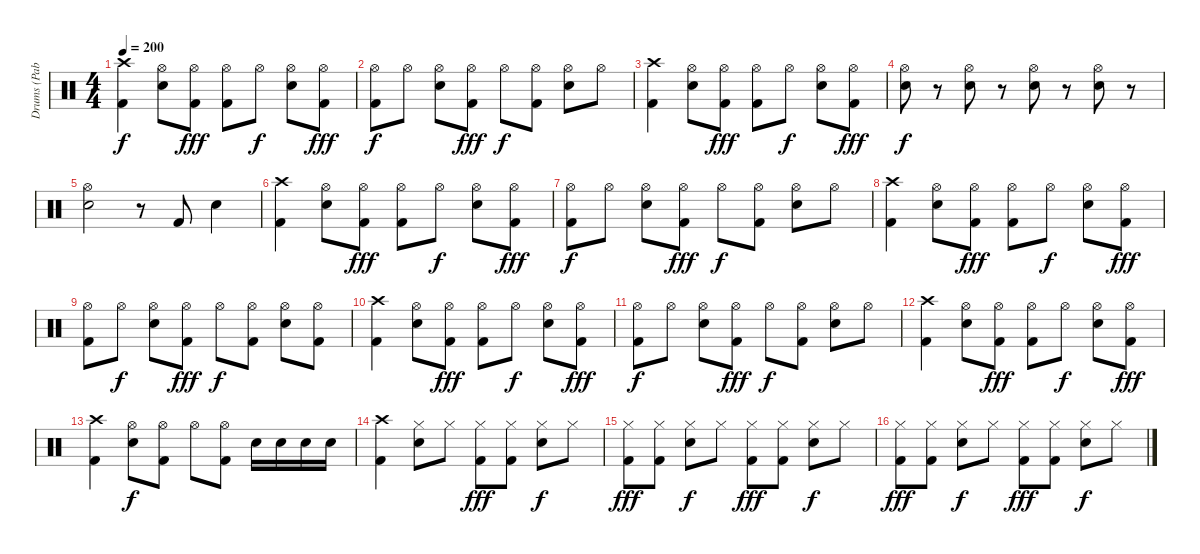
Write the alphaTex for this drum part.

\track ("Drums (Pablo)" "Drums (Pab") {instrument percussion}
\staff {score}
\articulation defaults
\ts (4 4)
\tempo 200
\clef neutral
\ks c
("Crash high (hit)" "Kick (hit) 2").4{dy f} ("Hi-Hat (open)" "Electric Snare (hit)").8 ("Hi-Hat (open)" "Kick (hit) 2").8{dy fff} ("Hi-Hat (open)" "Kick (hit) 2").8 "Hi-Hat (open)".8{dy f} ("Hi-Hat (open)" "Electric Snare (hit)").8 ("Hi-Hat (open)" "Kick (hit) 2").8{dy fff} |
("Hi-Hat (open)" "Kick (hit) 2").8{dy f} "Hi-Hat (open)".8 ("Hi-Hat (open)" "Electric Snare (hit)").8 ("Hi-Hat (open)" "Kick (hit) 2").8{dy fff} "Hi-Hat (open)".8{dy f} ("Hi-Hat (open)" "Kick (hit) 2").8 ("Hi-Hat (open)" "Electric Snare (hit)").8 "Hi-Hat (open)".8 |
("Crash high (hit)" "Kick (hit) 2").4 ("Hi-Hat (open)" "Electric Snare (hit)").8 ("Hi-Hat (open)" "Kick (hit) 2").8{dy fff} ("Hi-Hat (open)" "Kick (hit) 2").8 "Hi-Hat (open)".8{dy f} ("Hi-Hat (open)" "Electric Snare (hit)").8 ("Hi-Hat (open)" "Kick (hit) 2").8{dy fff} |
("Hi-Hat (open)" "Electric Snare (hit)").8{dy f} r.8 ("Hi-Hat (open)" "Electric Snare (hit)").8 r.8 ("Hi-Hat (open)" "Electric Snare (hit)").8 r.8 ("Hi-Hat (open)" "Electric Snare (hit)").8 r.8 |
("Hi-Hat (open)" "Electric Snare (hit)").2 r.8 "Kick (hit) 2".8 "Electric Snare (hit)".4 |
("Crash high (hit)" "Kick (hit) 2").4 ("Hi-Hat (open)" "Electric Snare (hit)").8 ("Hi-Hat (open)" "Kick (hit) 2").8{dy fff} ("Hi-Hat (open)" "Kick (hit) 2").8 "Hi-Hat (open)".8{dy f} ("Hi-Hat (open)" "Electric Snare (hit)").8 ("Hi-Hat (open)" "Kick (hit) 2").8{dy fff} |
("Hi-Hat (open)" "Kick (hit) 2").8{dy f} "Hi-Hat (open)".8 ("Hi-Hat (open)" "Electric Snare (hit)").8 ("Hi-Hat (open)" "Kick (hit) 2").8{dy fff} "Hi-Hat (open)".8{dy f} ("Hi-Hat (open)" "Kick (hit) 2").8 ("Hi-Hat (open)" "Electric Snare (hit)").8 "Hi-Hat (open)".8 |
("Crash high (hit)" "Kick (hit) 2").4 ("Hi-Hat (open)" "Electric Snare (hit)").8 ("Hi-Hat (open)" "Kick (hit) 2").8{dy fff} ("Hi-Hat (open)" "Kick (hit) 2").8 "Hi-Hat (open)".8{dy f} ("Hi-Hat (open)" "Electric Snare (hit)").8 ("Hi-Hat (open)" "Kick (hit) 2").8{dy fff} |
("Hi-Hat (open)" "Kick (hit) 2").8 "Hi-Hat (open)".8{dy f} ("Hi-Hat (open)" "Electric Snare (hit)").8 ("Hi-Hat (open)" "Kick (hit) 2").8{dy fff} "Hi-Hat (open)".8{dy f} ("Hi-Hat (open)" "Kick (hit) 2").8 ("Hi-Hat (open)" "Electric Snare (hit)").8 ("Hi-Hat (open)" "Kick (hit) 2").8 |
("Crash high (hit)" "Kick (hit) 2").4 ("Hi-Hat (open)" "Electric Snare (hit)").8 ("Hi-Hat (open)" "Kick (hit) 2").8{dy fff} ("Hi-Hat (open)" "Kick (hit) 2").8 "Hi-Hat (open)".8{dy f} ("Hi-Hat (open)" "Electric Snare (hit)").8 ("Hi-Hat (open)" "Kick (hit) 2").8{dy fff} |
("Hi-Hat (open)" "Kick (hit) 2").8{dy f} "Hi-Hat (open)".8 ("Hi-Hat (open)" "Electric Snare (hit)").8 ("Hi-Hat (open)" "Kick (hit) 2").8{dy fff} "Hi-Hat (open)".8{dy f} ("Hi-Hat (open)" "Kick (hit) 2").8 ("Hi-Hat (open)" "Electric Snare (hit)").8 "Hi-Hat (open)".8 |
("Crash high (hit)" "Kick (hit) 2").4 ("Hi-Hat (open)" "Electric Snare (hit)").8 ("Hi-Hat (open)" "Kick (hit) 2").8{dy fff} ("Hi-Hat (open)" "Kick (hit) 2").8 "Hi-Hat (open)".8{dy f} ("Hi-Hat (open)" "Electric Snare (hit)").8 ("Hi-Hat (open)" "Kick (hit) 2").8{dy fff} |
("Crash high (hit)" "Kick (hit) 2").4 ("Hi-Hat (open)" "Electric Snare (hit)").8{dy f} ("Hi-Hat (open)" "Kick (hit) 2").8 "Hi-Hat (open)".8 ("Hi-Hat (open)" "Kick (hit) 2").8 "Electric Snare (hit)".16 "Electric Snare (hit)".16 "Electric Snare (hit)".16 "Electric Snare (hit)".16 |
("Crash high (hit)" "Kick (hit) 2").4 ("Hi-Hat (closed)" "Electric Snare (hit)").8 "Hi-Hat (closed)".8 ("Hi-Hat (closed)" "Kick (hit) 2").8{dy fff} ("Hi-Hat (closed)" "Kick (hit) 2").8 ("Hi-Hat (closed)" "Electric Snare (hit)").8{dy f} "Hi-Hat (closed)".8 |
("Hi-Hat (closed)" "Kick (hit) 2").8{dy fff} ("Hi-Hat (closed)" "Kick (hit) 2").8 ("Hi-Hat (closed)" "Electric Snare (hit)").8{dy f} "Hi-Hat (closed)".8 ("Hi-Hat (closed)" "Kick (hit) 2").8{dy fff} ("Hi-Hat (closed)" "Kick (hit) 2").8 ("Hi-Hat (closed)" "Electric Snare (hit)").8{dy f} "Hi-Hat (closed)".8 |
("Hi-Hat (closed)" "Kick (hit) 2").8{dy fff} ("Hi-Hat (closed)" "Kick (hit) 2").8 ("Hi-Hat (closed)" "Electric Snare (hit)").8{dy f} "Hi-Hat (closed)".8 ("Hi-Hat (closed)" "Kick (hit) 2").8{dy fff} ("Hi-Hat (closed)" "Kick (hit) 2").8 ("Hi-Hat (closed)" "Electric Snare (hit)").8{dy f} "Hi-Hat (closed)".8
